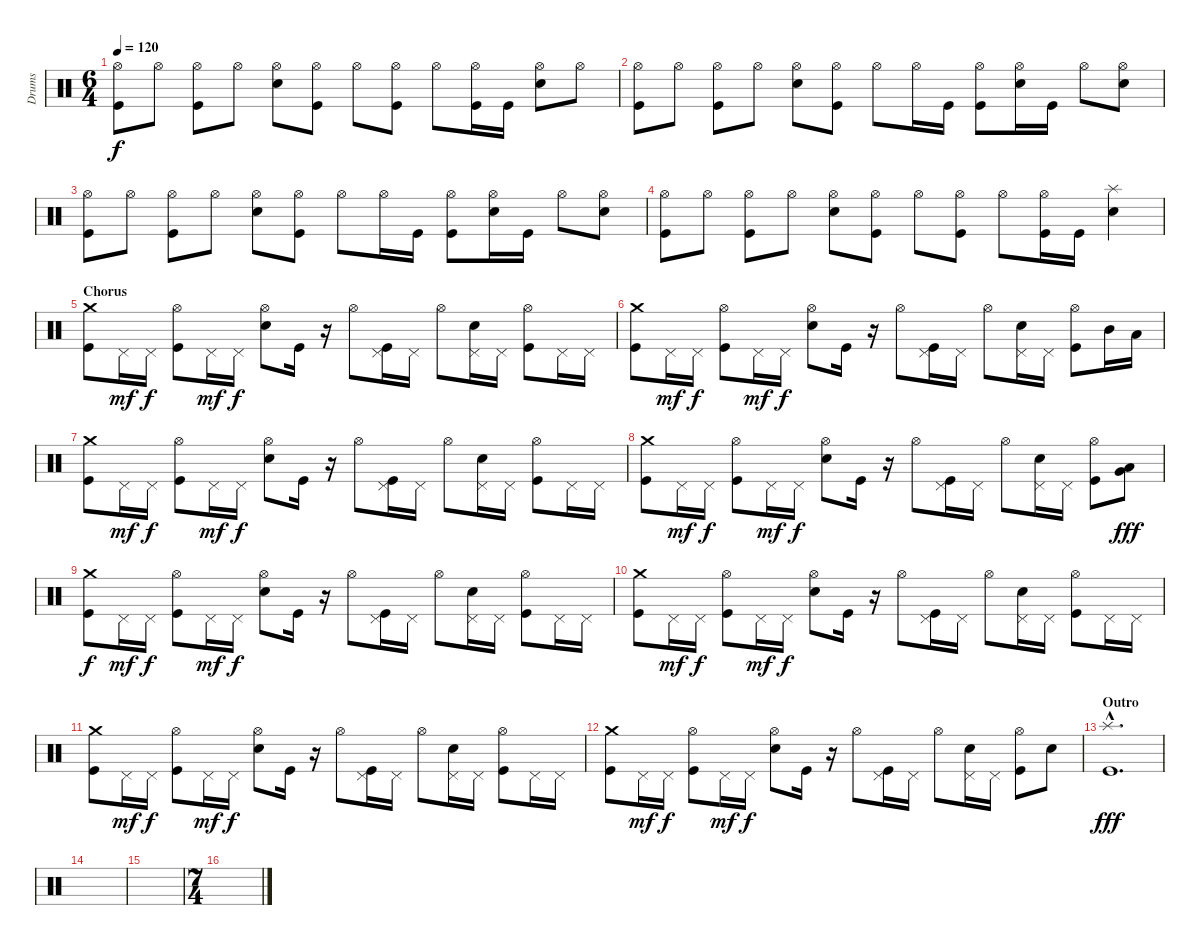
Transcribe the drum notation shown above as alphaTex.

\track ("Drums" "Drums") {instrument percussion}
\staff {score}
\articulation defaults
\ts (6 4)
\tempo 120
\clef neutral
\ks c
("Hi-Hat (open)" "Kick (hit)").8{dy f} "Hi-Hat (open)".8 ("Hi-Hat (open)" "Kick (hit)").8 "Hi-Hat (open)".8 ("Hi-Hat (open)" "Electric Snare (hit)").8 ("Hi-Hat (open)" "Kick (hit)").8 "Hi-Hat (open)".8 ("Hi-Hat (open)" "Kick (hit)").8 "Hi-Hat (open)".8 ("Hi-Hat (open)" "Kick (hit)").16 "Kick (hit)".16 ("Hi-Hat (open)" "Electric Snare (hit)").8 "Hi-Hat (open)".8 |
("Hi-Hat (open)" "Kick (hit)").8 "Hi-Hat (open)".8 ("Hi-Hat (open)" "Kick (hit)").8 "Hi-Hat (open)".8 ("Hi-Hat (open)" "Electric Snare (hit)").8 ("Hi-Hat (open)" "Kick (hit)").8 "Hi-Hat (open)".8 "Hi-Hat (open)".16 "Kick (hit)".16 ("Hi-Hat (open)" "Kick (hit)").8 ("Hi-Hat (open)" "Electric Snare (hit)").16 "Kick (hit)".16 "Hi-Hat (open)".8 ("Hi-Hat (open)" "Electric Snare (hit)").8 |
("Hi-Hat (open)" "Kick (hit)").8 "Hi-Hat (open)".8 ("Hi-Hat (open)" "Kick (hit)").8 "Hi-Hat (open)".8 ("Hi-Hat (open)" "Electric Snare (hit)").8 ("Hi-Hat (open)" "Kick (hit)").8 "Hi-Hat (open)".8 "Hi-Hat (open)".16 "Kick (hit)".16 ("Hi-Hat (open)" "Kick (hit)").8 ("Hi-Hat (open)" "Electric Snare (hit)").16 "Kick (hit)".16 "Hi-Hat (open)".8 ("Hi-Hat (open)" "Electric Snare (hit)").8 |
("Hi-Hat (open)" "Kick (hit)").8 "Hi-Hat (open)".8 ("Hi-Hat (open)" "Kick (hit)").8 "Hi-Hat (open)".8 ("Hi-Hat (open)" "Electric Snare (hit)").8 ("Hi-Hat (open)" "Kick (hit)").8 "Hi-Hat (open)".8 ("Hi-Hat (open)" "Kick (hit)").8 "Hi-Hat (open)".8 ("Hi-Hat (open)" "Kick (hit)").16 "Kick (hit)".16 ("Splash (hit)" "Electric Snare (hit)").4 |
\section ("" "Chorus")
("Crash medium (hit)" "Kick (hit)").8 "Pedal Hi-Hat (hit)".16{dy mf} "Pedal Hi-Hat (hit)".16{dy f} ("Hi-Hat (open)" "Kick (hit)").8 "Pedal Hi-Hat (hit)".16{dy mf} "Pedal Hi-Hat (hit)".16{dy f} ("Hi-Hat (open)" "Electric Snare (hit)").8 "Kick (hit)".16 r.16 "Hi-Hat (open)".8 ("Pedal Hi-Hat (hit)" "Kick (hit)").16 "Pedal Hi-Hat (hit)".16 "Hi-Hat (open)".8 ("Pedal Hi-Hat (hit)" "Electric Snare (hit)").16 "Pedal Hi-Hat (hit)".16 ("Hi-Hat (open)" "Kick (hit)").8 "Pedal Hi-Hat (hit)".16 "Pedal Hi-Hat (hit)".16 |
("Crash medium (hit)" "Kick (hit)").8 "Pedal Hi-Hat (hit)".16{dy mf} "Pedal Hi-Hat (hit)".16{dy f} ("Hi-Hat (open)" "Kick (hit)").8 "Pedal Hi-Hat (hit)".16{dy mf} "Pedal Hi-Hat (hit)".16{dy f} ("Hi-Hat (open)" "Electric Snare (hit)").8 "Kick (hit)".16 r.16 "Hi-Hat (open)".8 ("Pedal Hi-Hat (hit)" "Kick (hit)").16 "Pedal Hi-Hat (hit)".16 "Hi-Hat (open)".8 ("Pedal Hi-Hat (hit)" "Electric Snare (hit)").16 "Pedal Hi-Hat (hit)".16 ("Hi-Hat (open)" "Kick (hit)").8 "Mid Tom (hit)".16 "Low Tom (hit)".16 |
("Crash medium (hit)" "Kick (hit)").8 "Pedal Hi-Hat (hit)".16{dy mf} "Pedal Hi-Hat (hit)".16{dy f} ("Hi-Hat (open)" "Kick (hit)").8 "Pedal Hi-Hat (hit)".16{dy mf} "Pedal Hi-Hat (hit)".16{dy f} ("Hi-Hat (open)" "Electric Snare (hit)").8 "Kick (hit)".16 r.16 "Hi-Hat (open)".8 ("Pedal Hi-Hat (hit)" "Kick (hit)").16 "Pedal Hi-Hat (hit)".16 "Hi-Hat (open)".8 ("Pedal Hi-Hat (hit)" "Electric Snare (hit)").16 "Pedal Hi-Hat (hit)".16 ("Hi-Hat (open)" "Kick (hit)").8 "Pedal Hi-Hat (hit)".16 "Pedal Hi-Hat (hit)".16 |
("Crash medium (hit)" "Kick (hit)").8 "Pedal Hi-Hat (hit)".16{dy mf} "Pedal Hi-Hat (hit)".16{dy f} ("Hi-Hat (open)" "Kick (hit)").8 "Pedal Hi-Hat (hit)".16{dy mf} "Pedal Hi-Hat (hit)".16{dy f} ("Hi-Hat (open)" "Electric Snare (hit)").8 "Kick (hit)".16 r.16 "Hi-Hat (open)".8 ("Pedal Hi-Hat (hit)" "Kick (hit)").16 "Pedal Hi-Hat (hit)".16 "Hi-Hat (open)".8 ("Pedal Hi-Hat (hit)" "Electric Snare (hit)").16 "Pedal Hi-Hat (hit)".16 ("Hi-Hat (open)" "Kick (hit)").8 ("Low Floor Tom (hit)" "Very Low Tom (hit)").8{dy fff} |
("Crash medium (hit)" "Kick (hit)").8{dy f} "Pedal Hi-Hat (hit)".16{dy mf} "Pedal Hi-Hat (hit)".16{dy f} ("Hi-Hat (open)" "Kick (hit)").8 "Pedal Hi-Hat (hit)".16{dy mf} "Pedal Hi-Hat (hit)".16{dy f} ("Hi-Hat (open)" "Electric Snare (hit)").8 "Kick (hit)".16 r.16 "Hi-Hat (open)".8 ("Pedal Hi-Hat (hit)" "Kick (hit)").16 "Pedal Hi-Hat (hit)".16 "Hi-Hat (open)".8 ("Pedal Hi-Hat (hit)" "Electric Snare (hit)").16 "Pedal Hi-Hat (hit)".16 ("Hi-Hat (open)" "Kick (hit)").8 "Pedal Hi-Hat (hit)".16 "Pedal Hi-Hat (hit)".16 |
("Crash medium (hit)" "Kick (hit)").8 "Pedal Hi-Hat (hit)".16{dy mf} "Pedal Hi-Hat (hit)".16{dy f} ("Hi-Hat (open)" "Kick (hit)").8 "Pedal Hi-Hat (hit)".16{dy mf} "Pedal Hi-Hat (hit)".16{dy f} ("Hi-Hat (open)" "Electric Snare (hit)").8 "Kick (hit)".16 r.16 "Hi-Hat (open)".8 ("Pedal Hi-Hat (hit)" "Kick (hit)").16 "Pedal Hi-Hat (hit)".16 "Hi-Hat (open)".8 ("Pedal Hi-Hat (hit)" "Electric Snare (hit)").16 "Pedal Hi-Hat (hit)".16 ("Hi-Hat (open)" "Kick (hit)").8 "Pedal Hi-Hat (hit)".16 "Pedal Hi-Hat (hit)".16 |
("Crash medium (hit)" "Kick (hit)").8 "Pedal Hi-Hat (hit)".16{dy mf} "Pedal Hi-Hat (hit)".16{dy f} ("Hi-Hat (open)" "Kick (hit)").8 "Pedal Hi-Hat (hit)".16{dy mf} "Pedal Hi-Hat (hit)".16{dy f} ("Hi-Hat (open)" "Electric Snare (hit)").8 "Kick (hit)".16 r.16 "Hi-Hat (open)".8 ("Pedal Hi-Hat (hit)" "Kick (hit)").16 "Pedal Hi-Hat (hit)".16 "Hi-Hat (open)".8 ("Pedal Hi-Hat (hit)" "Electric Snare (hit)").16 "Pedal Hi-Hat (hit)".16 ("Hi-Hat (open)" "Kick (hit)").8 "Pedal Hi-Hat (hit)".16 "Pedal Hi-Hat (hit)".16 |
("Crash medium (hit)" "Kick (hit)").8 "Pedal Hi-Hat (hit)".16{dy mf} "Pedal Hi-Hat (hit)".16{dy f} ("Hi-Hat (open)" "Kick (hit)").8 "Pedal Hi-Hat (hit)".16{dy mf} "Pedal Hi-Hat (hit)".16{dy f} ("Hi-Hat (open)" "Electric Snare (hit)").8 "Kick (hit)".16 r.16 "Hi-Hat (open)".8 ("Pedal Hi-Hat (hit)" "Kick (hit)").16 "Pedal Hi-Hat (hit)".16 "Hi-Hat (open)".8 ("Pedal Hi-Hat (hit)" "Electric Snare (hit)").16 "Pedal Hi-Hat (hit)".16 ("Hi-Hat (open)" "Kick (hit)").8 "Electric Snare (hit)".8 |
\section ("" "Outro")
("Splash (hit)"{hac} "Kick (hit)"{hac}).1{d dy fff} |
|
|
\ts (7 4)
